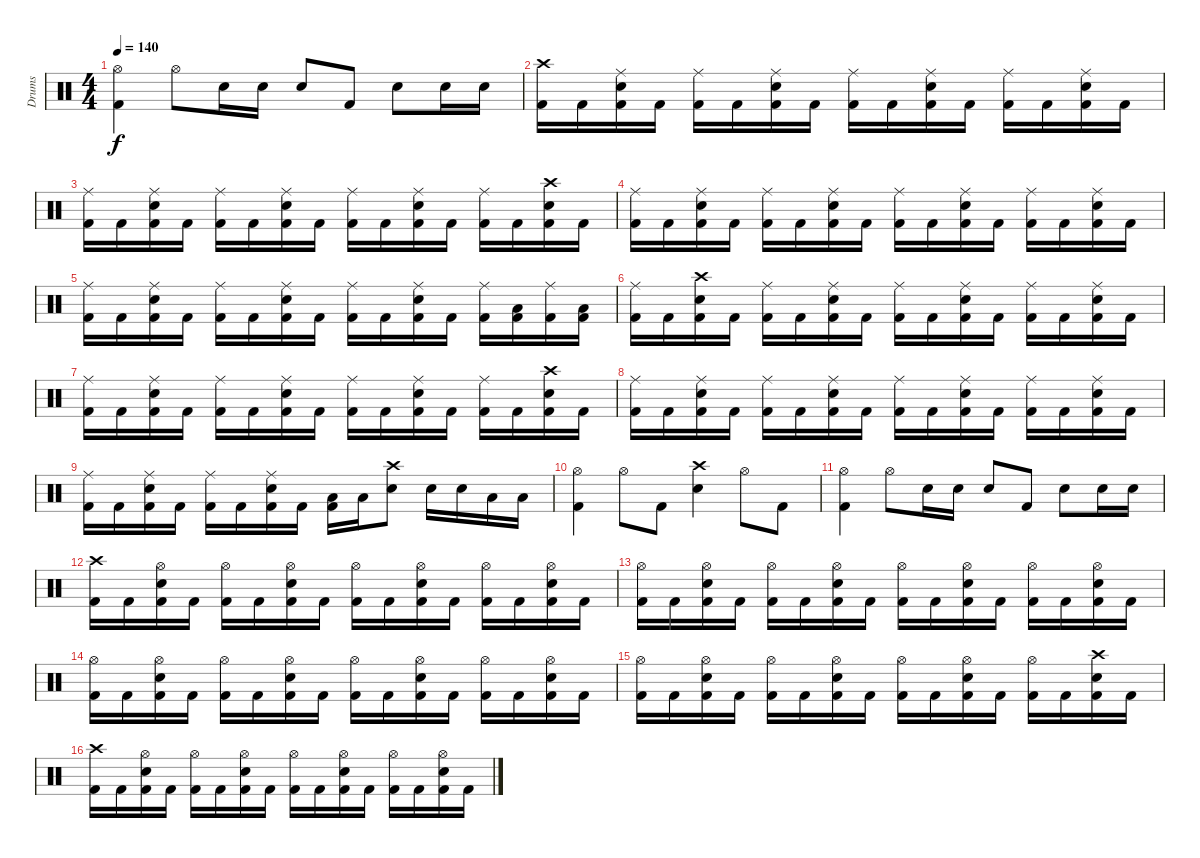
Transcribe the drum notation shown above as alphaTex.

\track ("Drums" "Drums") {instrument percussion}
\staff {score}
\articulation defaults
\ts (4 4)
\tempo 140
\clef neutral
\ks c
("Hi-Hat (open)" "Kick (hit) 2").4{dy f} "Hi-Hat (open)".8 "Electric Snare (hit)".16 "Electric Snare (hit)".16 "Electric Snare (hit)".8 "Kick (hit) 2".8 "Electric Snare (hit)".8 "Electric Snare (hit)".16 "Electric Snare (hit)".16 |
("Crash high (hit)" "Kick (hit) 2").16 "Kick (hit) 2".16 ("Ride (middle)" "Electric Snare (hit)" "Kick (hit) 2").16 "Kick (hit) 2".16 ("Ride (middle)" "Kick (hit) 2").16 "Kick (hit) 2".16 ("Ride (middle)" "Electric Snare (hit)" "Kick (hit) 2").16 "Kick (hit) 2".16 ("Ride (middle)" "Kick (hit) 2").16 "Kick (hit) 2".16 ("Ride (middle)" "Electric Snare (hit)" "Kick (hit) 2").16 "Kick (hit) 2".16 ("Ride (middle)" "Kick (hit) 2").16 "Kick (hit) 2".16 ("Ride (middle)" "Electric Snare (hit)" "Kick (hit) 2").16 "Kick (hit) 2".16 |
("Ride (middle)" "Kick (hit) 2").16 "Kick (hit) 2".16 ("Ride (middle)" "Electric Snare (hit)" "Kick (hit) 2").16 "Kick (hit) 2".16 ("Ride (middle)" "Kick (hit) 2").16 "Kick (hit) 2".16 ("Ride (middle)" "Electric Snare (hit)" "Kick (hit) 2").16 "Kick (hit) 2".16 ("Ride (middle)" "Kick (hit) 2").16 "Kick (hit) 2".16 ("Ride (middle)" "Electric Snare (hit)" "Kick (hit) 2").16 "Kick (hit) 2".16 ("Ride (middle)" "Kick (hit) 2").16 "Kick (hit) 2".16 ("Crash high (hit)" "Electric Snare (hit)" "Kick (hit) 2").16 "Kick (hit) 2".16 |
("Ride (middle)" "Kick (hit) 2").16 "Kick (hit) 2".16 ("Ride (middle)" "Electric Snare (hit)" "Kick (hit) 2").16 "Kick (hit) 2".16 ("Ride (middle)" "Kick (hit) 2").16 "Kick (hit) 2".16 ("Ride (middle)" "Electric Snare (hit)" "Kick (hit) 2").16 "Kick (hit) 2".16 ("Ride (middle)" "Kick (hit) 2").16 "Kick (hit) 2".16 ("Ride (middle)" "Electric Snare (hit)" "Kick (hit) 2").16 "Kick (hit) 2".16 ("Ride (middle)" "Kick (hit) 2").16 "Kick (hit) 2".16 ("Ride (middle)" "Electric Snare (hit)" "Kick (hit) 2").16 "Kick (hit) 2".16 |
("Ride (middle)" "Kick (hit) 2").16 "Kick (hit) 2".16 ("Ride (middle)" "Electric Snare (hit)" "Kick (hit) 2").16 "Kick (hit) 2".16 ("Ride (middle)" "Kick (hit) 2").16 "Kick (hit) 2".16 ("Ride (middle)" "Electric Snare (hit)" "Kick (hit) 2").16 "Kick (hit) 2".16 ("Ride (middle)" "Kick (hit) 2").16 "Kick (hit) 2".16 ("Ride (middle)" "Electric Snare (hit)" "Kick (hit) 2").16 "Kick (hit) 2".16 ("Ride (middle)" "Kick (hit) 2").16 ("Low Tom (hit)" "Kick (hit) 2").16 ("Ride (middle)" "Kick (hit) 2").16 ("Low Tom (hit)" "Kick (hit) 2").16 |
("Ride (middle)" "Kick (hit) 2").16 "Kick (hit) 2".16 ("Crash high (hit)" "Electric Snare (hit)" "Kick (hit) 2").16 "Kick (hit) 2".16 ("Ride (middle)" "Kick (hit) 2").16 "Kick (hit) 2".16 ("Ride (middle)" "Electric Snare (hit)" "Kick (hit) 2").16 "Kick (hit) 2".16 ("Ride (middle)" "Kick (hit) 2").16 "Kick (hit) 2".16 ("Ride (middle)" "Electric Snare (hit)" "Kick (hit) 2").16 "Kick (hit) 2".16 ("Ride (middle)" "Kick (hit) 2").16 "Kick (hit) 2".16 ("Ride (middle)" "Electric Snare (hit)" "Kick (hit) 2").16 "Kick (hit) 2".16 |
("Ride (middle)" "Kick (hit) 2").16 "Kick (hit) 2".16 ("Ride (middle)" "Electric Snare (hit)" "Kick (hit) 2").16 "Kick (hit) 2".16 ("Ride (middle)" "Kick (hit) 2").16 "Kick (hit) 2".16 ("Ride (middle)" "Electric Snare (hit)" "Kick (hit) 2").16 "Kick (hit) 2".16 ("Ride (middle)" "Kick (hit) 2").16 "Kick (hit) 2".16 ("Ride (middle)" "Electric Snare (hit)" "Kick (hit) 2").16 "Kick (hit) 2".16 ("Ride (middle)" "Kick (hit) 2").16 "Kick (hit) 2".16 ("Crash high (hit)" "Electric Snare (hit)" "Kick (hit) 2").16 "Kick (hit) 2".16 |
("Ride (middle)" "Kick (hit) 2").16 "Kick (hit) 2".16 ("Ride (middle)" "Electric Snare (hit)" "Kick (hit) 2").16 "Kick (hit) 2".16 ("Ride (middle)" "Kick (hit) 2").16 "Kick (hit) 2".16 ("Ride (middle)" "Electric Snare (hit)" "Kick (hit) 2").16 "Kick (hit) 2".16 ("Ride (middle)" "Kick (hit) 2").16 "Kick (hit) 2".16 ("Ride (middle)" "Electric Snare (hit)" "Kick (hit) 2").16 "Kick (hit) 2".16 ("Ride (middle)" "Kick (hit) 2").16 "Kick (hit) 2".16 ("Ride (middle)" "Electric Snare (hit)" "Kick (hit) 2").16 "Kick (hit) 2".16 |
("Ride (middle)" "Kick (hit) 2").16 "Kick (hit) 2".16 ("Ride (middle)" "Electric Snare (hit)" "Kick (hit) 2").16 "Kick (hit) 2".16 ("Ride (middle)" "Kick (hit) 2").16 "Kick (hit) 2".16 ("Ride (middle)" "Electric Snare (hit)" "Kick (hit) 2").16 "Kick (hit) 2".16 ("Low Tom (hit)" "Kick (hit) 2").16 "Low Tom (hit)".16 ("Crash high (hit)" "Electric Snare (hit)").8 "Electric Snare (hit)".16 "Electric Snare (hit)".16 "Low Tom (hit)".16 "Low Tom (hit)".16 |
("Hi-Hat (open)" "Kick (hit) 2").4 "Hi-Hat (open)".8 "Kick (hit) 2".8 ("Crash high (hit)" "Electric Snare (hit)").4 "Hi-Hat (open)".8 "Kick (hit) 2".8 |
("Hi-Hat (open)" "Kick (hit) 2").4 "Hi-Hat (open)".8 "Electric Snare (hit)".16 "Electric Snare (hit)".16 "Electric Snare (hit)".8 "Kick (hit) 2".8 "Electric Snare (hit)".8 "Electric Snare (hit)".16 "Electric Snare (hit)".16 |
("Crash high (hit)" "Kick (hit) 2").16 "Kick (hit) 2".16 ("Hi-Hat (open)" "Electric Snare (hit)" "Kick (hit) 2").16 "Kick (hit) 2".16 ("Hi-Hat (open)" "Kick (hit) 2").16 "Kick (hit) 2".16 ("Hi-Hat (open)" "Electric Snare (hit)" "Kick (hit) 2").16 "Kick (hit) 2".16 ("Hi-Hat (open)" "Kick (hit) 2").16 "Kick (hit) 2".16 ("Hi-Hat (open)" "Electric Snare (hit)" "Kick (hit) 2").16 "Kick (hit) 2".16 ("Hi-Hat (open)" "Kick (hit) 2").16 "Kick (hit) 2".16 ("Hi-Hat (open)" "Electric Snare (hit)" "Kick (hit) 2").16 "Kick (hit) 2".16 |
("Hi-Hat (open)" "Kick (hit) 2").16 "Kick (hit) 2".16 ("Hi-Hat (open)" "Electric Snare (hit)" "Kick (hit) 2").16 "Kick (hit) 2".16 ("Hi-Hat (open)" "Kick (hit) 2").16 "Kick (hit) 2".16 ("Hi-Hat (open)" "Electric Snare (hit)" "Kick (hit) 2").16 "Kick (hit) 2".16 ("Hi-Hat (open)" "Kick (hit) 2").16 "Kick (hit) 2".16 ("Hi-Hat (open)" "Electric Snare (hit)" "Kick (hit) 2").16 "Kick (hit) 2".16 ("Hi-Hat (open)" "Kick (hit) 2").16 "Kick (hit) 2".16 ("Hi-Hat (open)" "Electric Snare (hit)" "Kick (hit) 2").16 "Kick (hit) 2".16 |
("Hi-Hat (open)" "Kick (hit) 2").16 "Kick (hit) 2".16 ("Hi-Hat (open)" "Electric Snare (hit)" "Kick (hit) 2").16 "Kick (hit) 2".16 ("Hi-Hat (open)" "Kick (hit) 2").16 "Kick (hit) 2".16 ("Hi-Hat (open)" "Electric Snare (hit)" "Kick (hit) 2").16 "Kick (hit) 2".16 ("Hi-Hat (open)" "Kick (hit) 2").16 "Kick (hit) 2".16 ("Hi-Hat (open)" "Electric Snare (hit)" "Kick (hit) 2").16 "Kick (hit) 2".16 ("Hi-Hat (open)" "Kick (hit) 2").16 "Kick (hit) 2".16 ("Hi-Hat (open)" "Electric Snare (hit)" "Kick (hit) 2").16 "Kick (hit) 2".16 |
("Hi-Hat (open)" "Kick (hit) 2").16 "Kick (hit) 2".16 ("Hi-Hat (open)" "Electric Snare (hit)" "Kick (hit) 2").16 "Kick (hit) 2".16 ("Hi-Hat (open)" "Kick (hit) 2").16 "Kick (hit) 2".16 ("Hi-Hat (open)" "Electric Snare (hit)" "Kick (hit) 2").16 "Kick (hit) 2".16 ("Hi-Hat (open)" "Kick (hit) 2").16 "Kick (hit) 2".16 ("Hi-Hat (open)" "Electric Snare (hit)" "Kick (hit) 2").16 "Kick (hit) 2".16 ("Hi-Hat (open)" "Kick (hit) 2").16 "Kick (hit) 2".16 ("Crash high (hit)" "Electric Snare (hit)" "Kick (hit) 2").16 "Kick (hit) 2".16 |
("Crash high (hit)" "Kick (hit) 2").16 "Kick (hit) 2".16 ("Hi-Hat (open)" "Electric Snare (hit)" "Kick (hit) 2").16 "Kick (hit) 2".16 ("Hi-Hat (open)" "Kick (hit) 2").16 "Kick (hit) 2".16 ("Hi-Hat (open)" "Electric Snare (hit)" "Kick (hit) 2").16 "Kick (hit) 2".16 ("Hi-Hat (open)" "Kick (hit) 2").16 "Kick (hit) 2".16 ("Hi-Hat (open)" "Electric Snare (hit)" "Kick (hit) 2").16 "Kick (hit) 2".16 ("Hi-Hat (open)" "Kick (hit) 2").16 "Kick (hit) 2".16 ("Hi-Hat (open)" "Electric Snare (hit)" "Kick (hit) 2").16 "Kick (hit) 2".16
